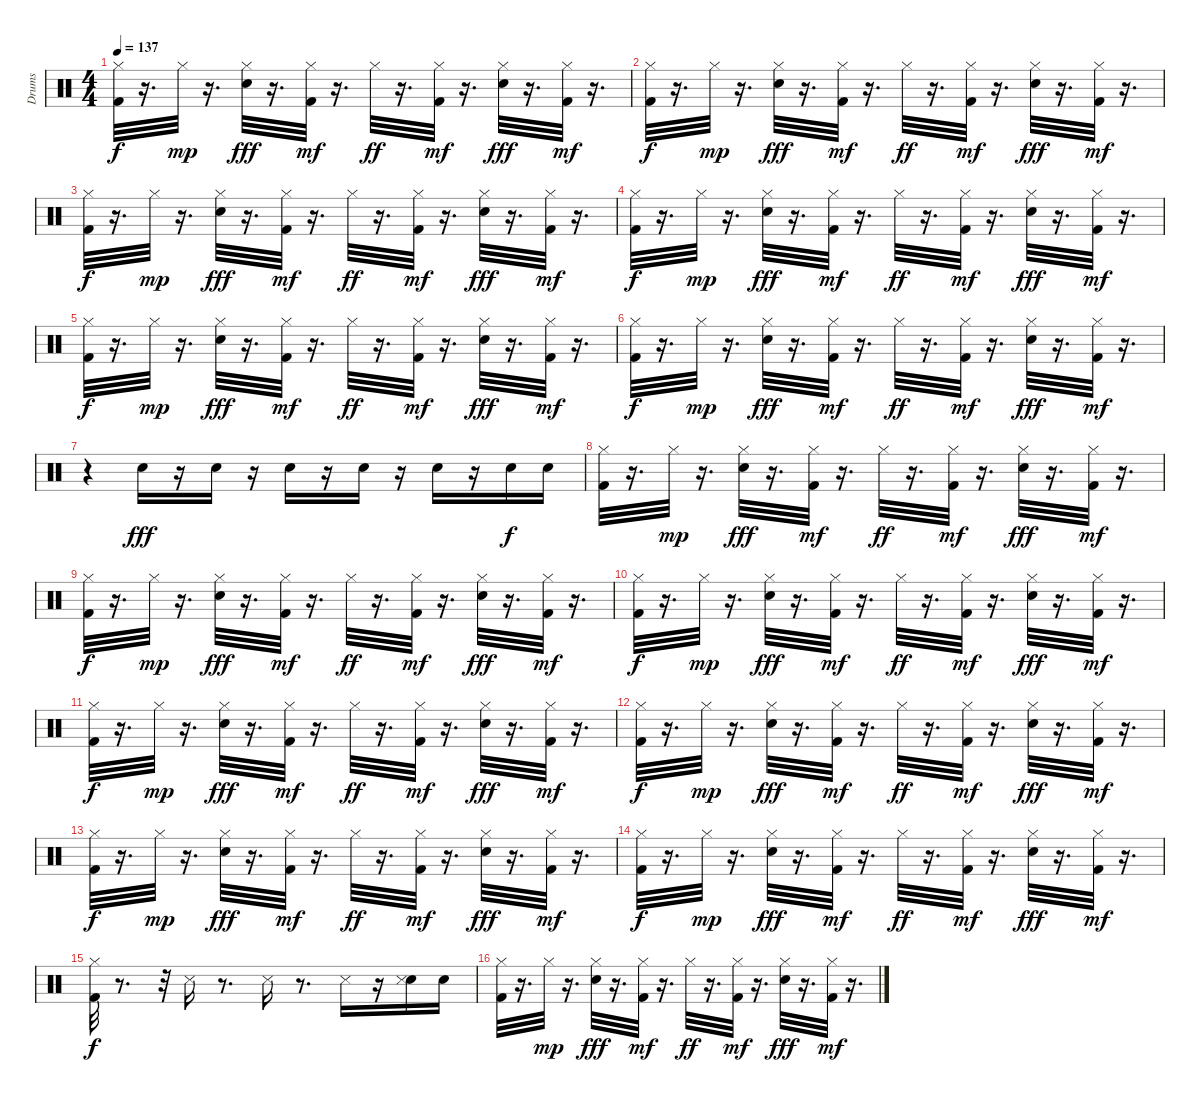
\track ("Drums" "Drums") {instrument percussion}
\staff {score}
\articulation defaults
\ts (4 4)
\tempo 137
\clef neutral
\ks c
("Hi-Hat (closed)" "Kick (hit) 2").32{dy f} r.16{d} "Hi-Hat (closed)".32{dy mp} r.16{d} ("Hi-Hat (closed)" "Snare (hit) 2").32{dy fff} r.16{d} ("Hi-Hat (closed)" "Kick (hit) 2").32{dy mf} r.16{d} "Hi-Hat (closed)".32{dy ff} r.16{d} ("Hi-Hat (closed)" "Kick (hit) 2").32{dy mf} r.16{d} ("Hi-Hat (closed)" "Snare (hit) 2").32{dy fff} r.16{d} ("Hi-Hat (closed)" "Kick (hit) 2").32{dy mf} r.16{d} |
("Hi-Hat (closed)" "Kick (hit) 2").32{dy f} r.16{d} "Hi-Hat (closed)".32{dy mp} r.16{d} ("Hi-Hat (closed)" "Snare (hit) 2").32{dy fff} r.16{d} ("Hi-Hat (closed)" "Kick (hit) 2").32{dy mf} r.16{d} "Hi-Hat (closed)".32{dy ff} r.16{d} ("Hi-Hat (closed)" "Kick (hit) 2").32{dy mf} r.16{d} ("Hi-Hat (closed)" "Snare (hit) 2").32{dy fff} r.16{d} ("Hi-Hat (closed)" "Kick (hit) 2").32{dy mf} r.16{d} |
("Hi-Hat (closed)" "Kick (hit) 2").32{dy f} r.16{d} "Hi-Hat (closed)".32{dy mp} r.16{d} ("Hi-Hat (closed)" "Snare (hit) 2").32{dy fff} r.16{d} ("Hi-Hat (closed)" "Kick (hit) 2").32{dy mf} r.16{d} "Hi-Hat (closed)".32{dy ff} r.16{d} ("Hi-Hat (closed)" "Kick (hit) 2").32{dy mf} r.16{d} ("Hi-Hat (closed)" "Snare (hit) 2").32{dy fff} r.16{d} ("Hi-Hat (closed)" "Kick (hit) 2").32{dy mf} r.16{d} |
("Hi-Hat (closed)" "Kick (hit) 2").32{dy f} r.16{d} "Hi-Hat (closed)".32{dy mp} r.16{d} ("Hi-Hat (closed)" "Snare (hit) 2").32{dy fff} r.16{d} ("Hi-Hat (closed)" "Kick (hit) 2").32{dy mf} r.16{d} "Hi-Hat (closed)".32{dy ff} r.16{d} ("Hi-Hat (closed)" "Kick (hit) 2").32{dy mf} r.16{d} ("Hi-Hat (closed)" "Snare (hit) 2").32{dy fff} r.16{d} ("Hi-Hat (closed)" "Kick (hit) 2").32{dy mf} r.16{d} |
("Hi-Hat (closed)" "Kick (hit) 2").32{dy f} r.16{d} "Hi-Hat (closed)".32{dy mp} r.16{d} ("Hi-Hat (closed)" "Snare (hit) 2").32{dy fff} r.16{d} ("Hi-Hat (closed)" "Kick (hit) 2").32{dy mf} r.16{d} "Hi-Hat (closed)".32{dy ff} r.16{d} ("Hi-Hat (closed)" "Kick (hit) 2").32{dy mf} r.16{d} ("Hi-Hat (closed)" "Snare (hit) 2").32{dy fff} r.16{d} ("Hi-Hat (closed)" "Kick (hit) 2").32{dy mf} r.16{d} |
("Hi-Hat (closed)" "Kick (hit) 2").32{dy f} r.16{d} "Hi-Hat (closed)".32{dy mp} r.16{d} ("Hi-Hat (closed)" "Snare (hit) 2").32{dy fff} r.16{d} ("Hi-Hat (closed)" "Kick (hit) 2").32{dy mf} r.16{d} "Hi-Hat (closed)".32{dy ff} r.16{d} ("Hi-Hat (closed)" "Kick (hit) 2").32{dy mf} r.16{d} ("Hi-Hat (closed)" "Snare (hit) 2").32{dy fff} r.16{d} ("Hi-Hat (closed)" "Kick (hit) 2").32{dy mf} r.16{d} |
r.4 "Snare (hit) 2".16{dy fff} r.16 "Snare (hit) 2".16 r.16 "Snare (hit) 2".16 r.16 "Snare (hit) 2".16 r.16 "Snare (hit) 2".16 r.16 "Electric Snare (hit)".16{dy f} "Snare (hit) 2".16 |
("Hi-Hat (closed)" "Kick (hit) 2").32 r.16{d} "Hi-Hat (closed)".32{dy mp} r.16{d} ("Hi-Hat (closed)" "Snare (hit) 2").32{dy fff} r.16{d} ("Hi-Hat (closed)" "Kick (hit) 2").32{dy mf} r.16{d} "Hi-Hat (closed)".32{dy ff} r.16{d} ("Hi-Hat (closed)" "Kick (hit) 2").32{dy mf} r.16{d} ("Hi-Hat (closed)" "Snare (hit) 2").32{dy fff} r.16{d} ("Hi-Hat (closed)" "Kick (hit) 2").32{dy mf} r.16{d} |
("Hi-Hat (closed)" "Kick (hit) 2").32{dy f} r.16{d} "Hi-Hat (closed)".32{dy mp} r.16{d} ("Hi-Hat (closed)" "Snare (hit) 2").32{dy fff} r.16{d} ("Hi-Hat (closed)" "Kick (hit) 2").32{dy mf} r.16{d} "Hi-Hat (closed)".32{dy ff} r.16{d} ("Hi-Hat (closed)" "Kick (hit) 2").32{dy mf} r.16{d} ("Hi-Hat (closed)" "Snare (hit) 2").32{dy fff} r.16{d} ("Hi-Hat (closed)" "Kick (hit) 2").32{dy mf} r.16{d} |
("Hi-Hat (closed)" "Kick (hit) 2").32{dy f} r.16{d} "Hi-Hat (closed)".32{dy mp} r.16{d} ("Hi-Hat (closed)" "Snare (hit) 2").32{dy fff} r.16{d} ("Hi-Hat (closed)" "Kick (hit) 2").32{dy mf} r.16{d} "Hi-Hat (closed)".32{dy ff} r.16{d} ("Hi-Hat (closed)" "Kick (hit) 2").32{dy mf} r.16{d} ("Hi-Hat (closed)" "Snare (hit) 2").32{dy fff} r.16{d} ("Hi-Hat (closed)" "Kick (hit) 2").32{dy mf} r.16{d} |
("Hi-Hat (closed)" "Kick (hit) 2").32{dy f} r.16{d} "Hi-Hat (closed)".32{dy mp} r.16{d} ("Hi-Hat (closed)" "Snare (hit) 2").32{dy fff} r.16{d} ("Hi-Hat (closed)" "Kick (hit) 2").32{dy mf} r.16{d} "Hi-Hat (closed)".32{dy ff} r.16{d} ("Hi-Hat (closed)" "Kick (hit) 2").32{dy mf} r.16{d} ("Hi-Hat (closed)" "Snare (hit) 2").32{dy fff} r.16{d} ("Hi-Hat (closed)" "Kick (hit) 2").32{dy mf} r.16{d} |
("Hi-Hat (closed)" "Kick (hit) 2").32{dy f} r.16{d} "Hi-Hat (closed)".32{dy mp} r.16{d} ("Hi-Hat (closed)" "Snare (hit) 2").32{dy fff} r.16{d} ("Hi-Hat (closed)" "Kick (hit) 2").32{dy mf} r.16{d} "Hi-Hat (closed)".32{dy ff} r.16{d} ("Hi-Hat (closed)" "Kick (hit) 2").32{dy mf} r.16{d} ("Hi-Hat (closed)" "Snare (hit) 2").32{dy fff} r.16{d} ("Hi-Hat (closed)" "Kick (hit) 2").32{dy mf} r.16{d} |
("Hi-Hat (closed)" "Kick (hit) 2").32{dy f} r.16{d} "Hi-Hat (closed)".32{dy mp} r.16{d} ("Hi-Hat (closed)" "Snare (hit) 2").32{dy fff} r.16{d} ("Hi-Hat (closed)" "Kick (hit) 2").32{dy mf} r.16{d} "Hi-Hat (closed)".32{dy ff} r.16{d} ("Hi-Hat (closed)" "Kick (hit) 2").32{dy mf} r.16{d} ("Hi-Hat (closed)" "Snare (hit) 2").32{dy fff} r.16{d} ("Hi-Hat (closed)" "Kick (hit) 2").32{dy mf} r.16{d} |
("Hi-Hat (closed)" "Kick (hit) 2").32{dy f} r.16{d} "Hi-Hat (closed)".32{dy mp} r.16{d} ("Hi-Hat (closed)" "Snare (hit) 2").32{dy fff} r.16{d} ("Hi-Hat (closed)" "Kick (hit) 2").32{dy mf} r.16{d} "Hi-Hat (closed)".32{dy ff} r.16{d} ("Hi-Hat (closed)" "Kick (hit) 2").32{dy mf} r.16{d} ("Hi-Hat (closed)" "Snare (hit) 2").32{dy fff} r.16{d} ("Hi-Hat (closed)" "Kick (hit) 2").32{dy mf} r.16{d} |
("Hi-Hat (closed)" "Kick (hit) 2").32{dy f} r.8{d} r.32 "Snare (side stick) 3".16 r.8{d} "Snare (side stick) 3".16 r.8{d} "Snare (side stick) 3".16 r.16 ("Snare (hit) 2" "Snare (side stick) 3").16 "Electric Snare (hit)".16 |
("Hi-Hat (closed)" "Kick (hit) 2").32 r.16{d} "Hi-Hat (closed)".32{dy mp} r.16{d} ("Hi-Hat (closed)" "Snare (hit) 2").32{dy fff} r.16{d} ("Hi-Hat (closed)" "Kick (hit) 2").32{dy mf} r.16{d} "Hi-Hat (closed)".32{dy ff} r.16{d} ("Hi-Hat (closed)" "Kick (hit) 2").32{dy mf} r.16{d} ("Hi-Hat (closed)" "Snare (hit) 2").32{dy fff} r.16{d} ("Hi-Hat (closed)" "Kick (hit) 2").32{dy mf} r.16{d}
